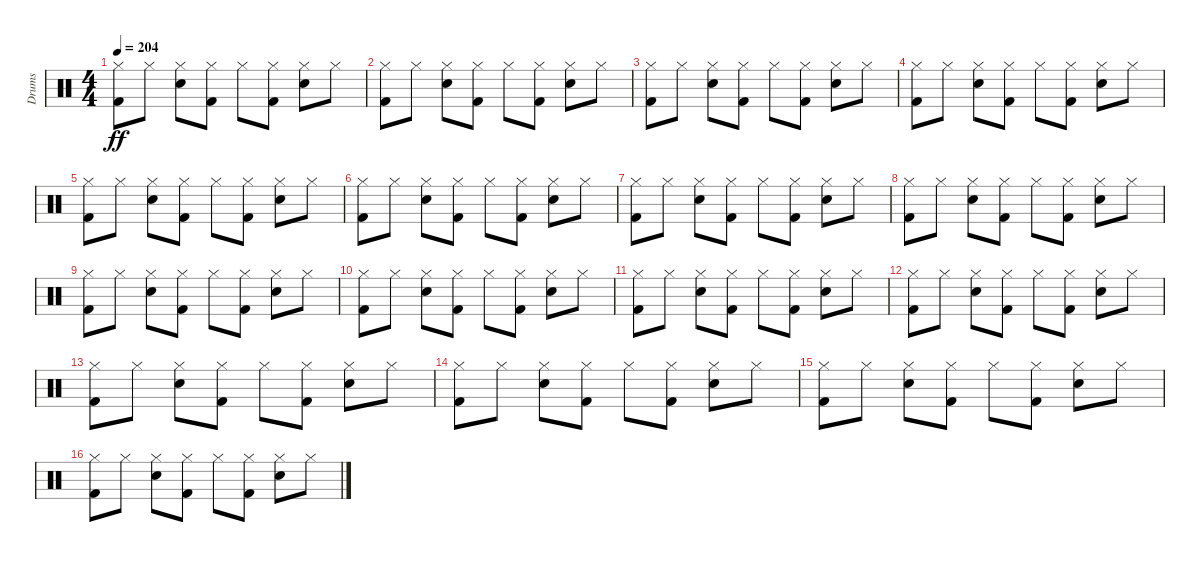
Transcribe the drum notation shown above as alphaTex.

\track ("Drums" "Drums") {instrument percussion}
\staff {score}
\articulation defaults
\ts (4 4)
\tempo 204
\clef neutral
\ks c
("Kick (hit) 2" "Hi-Hat (closed)").8{dy ff} "Hi-Hat (closed)".8 ("Snare (hit) 2" "Hi-Hat (closed)").8 ("Kick (hit) 2" "Hi-Hat (closed)").8 "Hi-Hat (closed)".8 ("Kick (hit) 2" "Hi-Hat (closed)").8 ("Snare (hit) 2" "Hi-Hat (closed)").8 "Hi-Hat (closed)".8 |
("Kick (hit) 2" "Hi-Hat (closed)").8 "Hi-Hat (closed)".8 ("Snare (hit) 2" "Hi-Hat (closed)").8 ("Kick (hit) 2" "Hi-Hat (closed)").8 "Hi-Hat (closed)".8 ("Kick (hit) 2" "Hi-Hat (closed)").8 ("Snare (hit) 2" "Hi-Hat (closed)").8 "Hi-Hat (closed)".8 |
("Kick (hit) 2" "Hi-Hat (closed)").8 "Hi-Hat (closed)".8 ("Snare (hit) 2" "Hi-Hat (closed)").8 ("Kick (hit) 2" "Hi-Hat (closed)").8 "Hi-Hat (closed)".8 ("Kick (hit) 2" "Hi-Hat (closed)").8 ("Snare (hit) 2" "Hi-Hat (closed)").8 "Hi-Hat (closed)".8 |
("Kick (hit) 2" "Hi-Hat (closed)").8 "Hi-Hat (closed)".8 ("Snare (hit) 2" "Hi-Hat (closed)").8 ("Kick (hit) 2" "Hi-Hat (closed)").8 "Hi-Hat (closed)".8 ("Kick (hit) 2" "Hi-Hat (closed)").8 ("Snare (hit) 2" "Hi-Hat (closed)").8 "Hi-Hat (closed)".8 |
("Kick (hit) 2" "Hi-Hat (closed)").8 "Hi-Hat (closed)".8 ("Snare (hit) 2" "Hi-Hat (closed)").8 ("Kick (hit) 2" "Hi-Hat (closed)").8 "Hi-Hat (closed)".8 ("Kick (hit) 2" "Hi-Hat (closed)").8 ("Snare (hit) 2" "Hi-Hat (closed)").8 "Hi-Hat (closed)".8 |
("Kick (hit) 2" "Hi-Hat (closed)").8 "Hi-Hat (closed)".8 ("Snare (hit) 2" "Hi-Hat (closed)").8 ("Kick (hit) 2" "Hi-Hat (closed)").8 "Hi-Hat (closed)".8 ("Kick (hit) 2" "Hi-Hat (closed)").8 ("Snare (hit) 2" "Hi-Hat (closed)").8 "Hi-Hat (closed)".8 |
("Kick (hit) 2" "Hi-Hat (closed)").8 "Hi-Hat (closed)".8 ("Snare (hit) 2" "Hi-Hat (closed)").8 ("Kick (hit) 2" "Hi-Hat (closed)").8 "Hi-Hat (closed)".8 ("Kick (hit) 2" "Hi-Hat (closed)").8 ("Snare (hit) 2" "Hi-Hat (closed)").8 "Hi-Hat (closed)".8 |
("Kick (hit) 2" "Hi-Hat (closed)").8 "Hi-Hat (closed)".8 ("Snare (hit) 2" "Hi-Hat (closed)").8 ("Kick (hit) 2" "Hi-Hat (closed)").8 "Hi-Hat (closed)".8 ("Kick (hit) 2" "Hi-Hat (closed)").8 ("Snare (hit) 2" "Hi-Hat (closed)").8 "Hi-Hat (closed)".8 |
("Kick (hit) 2" "Hi-Hat (closed)").8 "Hi-Hat (closed)".8 ("Snare (hit) 2" "Hi-Hat (closed)").8 ("Kick (hit) 2" "Hi-Hat (closed)").8 "Hi-Hat (closed)".8 ("Kick (hit) 2" "Hi-Hat (closed)").8 ("Snare (hit) 2" "Hi-Hat (closed)").8 "Hi-Hat (closed)".8 |
("Kick (hit) 2" "Hi-Hat (closed)").8 "Hi-Hat (closed)".8 ("Snare (hit) 2" "Hi-Hat (closed)").8 ("Kick (hit) 2" "Hi-Hat (closed)").8 "Hi-Hat (closed)".8 ("Kick (hit) 2" "Hi-Hat (closed)").8 ("Snare (hit) 2" "Hi-Hat (closed)").8 "Hi-Hat (closed)".8 |
("Kick (hit) 2" "Hi-Hat (closed)").8 "Hi-Hat (closed)".8 ("Snare (hit) 2" "Hi-Hat (closed)").8 ("Kick (hit) 2" "Hi-Hat (closed)").8 "Hi-Hat (closed)".8 ("Kick (hit) 2" "Hi-Hat (closed)").8 ("Snare (hit) 2" "Hi-Hat (closed)").8 "Hi-Hat (closed)".8 |
("Kick (hit) 2" "Hi-Hat (closed)").8 "Hi-Hat (closed)".8 ("Snare (hit) 2" "Hi-Hat (closed)").8 ("Kick (hit) 2" "Hi-Hat (closed)").8 "Hi-Hat (closed)".8 ("Kick (hit) 2" "Hi-Hat (closed)").8 ("Snare (hit) 2" "Hi-Hat (closed)").8 "Hi-Hat (closed)".8 |
("Kick (hit) 2" "Hi-Hat (closed)").8 "Hi-Hat (closed)".8 ("Snare (hit) 2" "Hi-Hat (closed)").8 ("Kick (hit) 2" "Hi-Hat (closed)").8 "Hi-Hat (closed)".8 ("Kick (hit) 2" "Hi-Hat (closed)").8 ("Snare (hit) 2" "Hi-Hat (closed)").8 "Hi-Hat (closed)".8 |
("Kick (hit) 2" "Hi-Hat (closed)").8 "Hi-Hat (closed)".8 ("Snare (hit) 2" "Hi-Hat (closed)").8 ("Kick (hit) 2" "Hi-Hat (closed)").8 "Hi-Hat (closed)".8 ("Kick (hit) 2" "Hi-Hat (closed)").8 ("Snare (hit) 2" "Hi-Hat (closed)").8 "Hi-Hat (closed)".8 |
("Kick (hit) 2" "Hi-Hat (closed)").8 "Hi-Hat (closed)".8 ("Snare (hit) 2" "Hi-Hat (closed)").8 ("Kick (hit) 2" "Hi-Hat (closed)").8 "Hi-Hat (closed)".8 ("Kick (hit) 2" "Hi-Hat (closed)").8 ("Snare (hit) 2" "Hi-Hat (closed)").8 "Hi-Hat (closed)".8 |
("Kick (hit) 2" "Hi-Hat (closed)").8 "Hi-Hat (closed)".8 ("Snare (hit) 2" "Hi-Hat (closed)").8 ("Kick (hit) 2" "Hi-Hat (closed)").8 "Hi-Hat (closed)".8 ("Kick (hit) 2" "Hi-Hat (closed)").8 ("Snare (hit) 2" "Hi-Hat (closed)").8 "Hi-Hat (closed)".8
